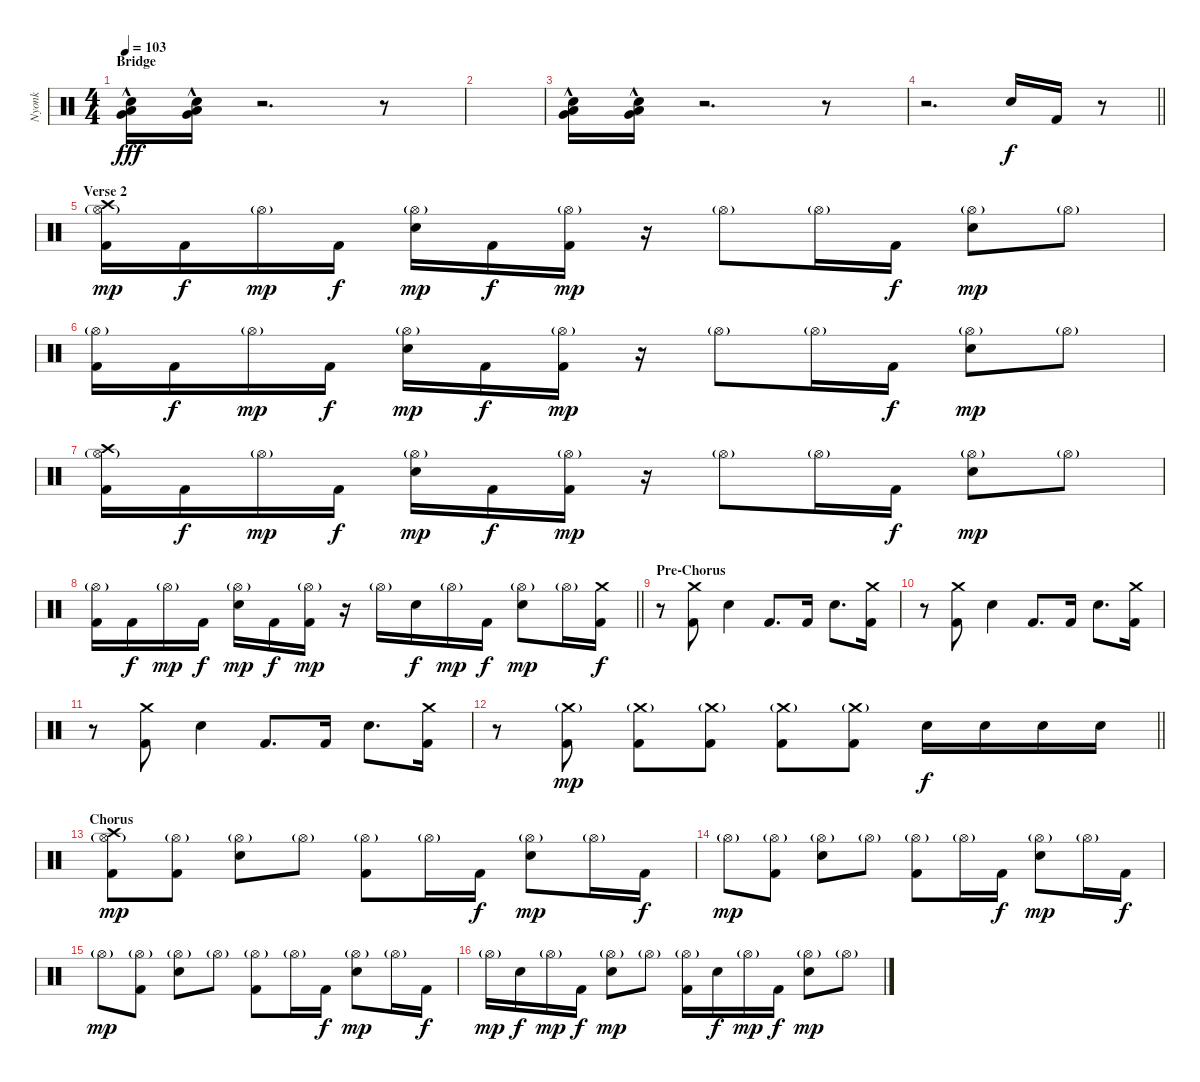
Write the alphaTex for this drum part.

\track ("Nyonk" "Nyonk") {instrument percussion}
\staff {score}
\articulation defaults
\ts (4 4)
\section ("" "Bridge")
\tempo 103
\clef neutral
\ks c
("Electric Snare (hit)" "Very Low Tom (hit)"{hac} "Low Floor Tom (hit)"{hac}).16{dy fff} ("Electric Snare (hit)" "Very Low Tom (hit)"{hac} "Low Floor Tom (hit)"{hac}).16 r.2{d} r.8 |
|
("Electric Snare (hit)" "Very Low Tom (hit)"{hac} "Low Floor Tom (hit)"{hac}).16 ("Electric Snare (hit)" "Very Low Tom (hit)"{hac} "Low Floor Tom (hit)"{hac}).16 r.2{d} r.8 |
\barLineRight lightlight
r.2{d} "Electric Snare (hit)".16{dy f} "Kick (hit) 2".16 r.8 |
\section ("" "Verse 2")
("Crash high (hit)" "Hi-Hat (open)"{g} "Kick (hit) 2").16{dy mp} "Kick (hit) 2".16{dy f} "Hi-Hat (open)"{g}.16{dy mp} "Kick (hit) 2".16{dy f} ("Hi-Hat (open)"{g} "Electric Snare (hit)").16{dy mp} "Kick (hit) 2".16{dy f} ("Hi-Hat (open)"{g} "Kick (hit) 2").16{dy mp} r.16 "Hi-Hat (open)"{g}.8 "Hi-Hat (open)"{g}.16 "Kick (hit) 2".16{dy f} ("Hi-Hat (open)"{g} "Electric Snare (hit)").8{dy mp} "Hi-Hat (open)"{g}.8 |
("Hi-Hat (open)"{g} "Kick (hit) 2").16 "Kick (hit) 2".16{dy f} "Hi-Hat (open)"{g}.16{dy mp} "Kick (hit) 2".16{dy f} ("Hi-Hat (open)"{g} "Electric Snare (hit)").16{dy mp} "Kick (hit) 2".16{dy f} ("Hi-Hat (open)"{g} "Kick (hit) 2").16{dy mp} r.16 "Hi-Hat (open)"{g}.8 "Hi-Hat (open)"{g}.16 "Kick (hit) 2".16{dy f} ("Hi-Hat (open)"{g} "Electric Snare (hit)").8{dy mp} "Hi-Hat (open)"{g}.8 |
("Crash high (hit)" "Hi-Hat (open)"{g} "Kick (hit) 2").16 "Kick (hit) 2".16{dy f} "Hi-Hat (open)"{g}.16{dy mp} "Kick (hit) 2".16{dy f} ("Hi-Hat (open)"{g} "Electric Snare (hit)").16{dy mp} "Kick (hit) 2".16{dy f} ("Hi-Hat (open)"{g} "Kick (hit) 2").16{dy mp} r.16 "Hi-Hat (open)"{g}.8 "Hi-Hat (open)"{g}.16 "Kick (hit) 2".16{dy f} ("Hi-Hat (open)"{g} "Electric Snare (hit)").8{dy mp} "Hi-Hat (open)"{g}.8 |
\barLineRight lightlight
("Hi-Hat (open)"{g} "Kick (hit) 2").16 "Kick (hit) 2".16{dy f} "Hi-Hat (open)"{g}.16{dy mp} "Kick (hit) 2".16{dy f} ("Hi-Hat (open)"{g} "Electric Snare (hit)").16{dy mp} "Kick (hit) 2".16{dy f} ("Hi-Hat (open)"{g} "Kick (hit) 2").16{dy mp} r.16 "Hi-Hat (open)"{g}.16 "Electric Snare (hit)".16{dy f} "Hi-Hat (open)"{g}.16{dy mp} "Kick (hit) 2".16{dy f} ("Hi-Hat (open)"{g} "Electric Snare (hit)").8{dy mp} "Hi-Hat (open)"{g}.16 ("Crash medium (hit)" "Kick (hit) 2").16{dy f} |
\section ("" "Pre-Chorus")
r.8 ("Crash medium (hit)" "Kick (hit) 2").8 "Electric Snare (hit)".4 "Kick (hit) 2".8{d} "Kick (hit) 2".16 "Electric Snare (hit)".8{d} ("Crash medium (hit)" "Kick (hit) 2").16 |
r.8 ("Crash medium (hit)" "Kick (hit) 2").8 "Electric Snare (hit)".4 "Kick (hit) 2".8{d} "Kick (hit) 2".16 "Electric Snare (hit)".8{d} ("Crash medium (hit)" "Kick (hit) 2").16 |
r.8 ("Crash medium (hit)" "Kick (hit) 2").8 "Electric Snare (hit)".4 "Kick (hit) 2".8{d} "Kick (hit) 2".16 "Electric Snare (hit)".8{d} ("Crash medium (hit)" "Kick (hit) 2").16 |
\barLineRight lightlight
r.8 ("Crash medium (hit)"{g} "Kick (hit) 2").8{dy mp} ("Crash medium (hit)"{g} "Kick (hit) 2").8 ("Crash medium (hit)"{g} "Kick (hit) 2").8 ("Crash medium (hit)"{g} "Kick (hit) 2").8 ("Crash medium (hit)"{g} "Kick (hit) 2").8 "Electric Snare (hit)".16{dy f} "Electric Snare (hit)".16 "Electric Snare (hit)".16 "Electric Snare (hit)".16 |
\section ("" "Chorus")
("Crash high (hit)" "Hi-Hat (open)"{g} "Kick (hit) 2").8{dy mp} ("Hi-Hat (open)"{g} "Kick (hit) 2").8 ("Hi-Hat (open)"{g} "Electric Snare (hit)").8 "Hi-Hat (open)"{g}.8 ("Hi-Hat (open)"{g} "Kick (hit) 2").8 "Hi-Hat (open)"{g}.16 "Kick (hit) 2".16{dy f} ("Hi-Hat (open)"{g} "Electric Snare (hit)").8{dy mp} "Hi-Hat (open)"{g}.16 "Kick (hit) 2".16{dy f} |
"Hi-Hat (open)"{g}.8{dy mp} ("Hi-Hat (open)"{g} "Kick (hit) 2").8 ("Hi-Hat (open)"{g} "Electric Snare (hit)").8 "Hi-Hat (open)"{g}.8 ("Hi-Hat (open)"{g} "Kick (hit) 2").8 "Hi-Hat (open)"{g}.16 "Kick (hit) 2".16{dy f} ("Hi-Hat (open)"{g} "Electric Snare (hit)").8{dy mp} "Hi-Hat (open)"{g}.16 "Kick (hit) 2".16{dy f} |
"Hi-Hat (open)"{g}.8{dy mp} ("Hi-Hat (open)"{g} "Kick (hit) 2").8 ("Hi-Hat (open)"{g} "Electric Snare (hit)").8 "Hi-Hat (open)"{g}.8 ("Hi-Hat (open)"{g} "Kick (hit) 2").8 "Hi-Hat (open)"{g}.16 "Kick (hit) 2".16{dy f} ("Hi-Hat (open)"{g} "Electric Snare (hit)").8{dy mp} "Hi-Hat (open)"{g}.16 "Kick (hit) 2".16{dy f} |
"Hi-Hat (open)"{g}.16{dy mp} "Electric Snare (hit)".16{dy f} "Hi-Hat (open)"{g}.16{dy mp} "Kick (hit) 2".16{dy f} ("Hi-Hat (open)"{g} "Electric Snare (hit)").8{dy mp} "Hi-Hat (open)"{g}.8 ("Hi-Hat (open)"{g} "Kick (hit) 2").16 "Electric Snare (hit)".16{dy f} "Hi-Hat (open)"{g}.16{dy mp} "Kick (hit) 2".16{dy f} ("Hi-Hat (open)"{g} "Electric Snare (hit)").8{dy mp} "Hi-Hat (open)"{g}.8
